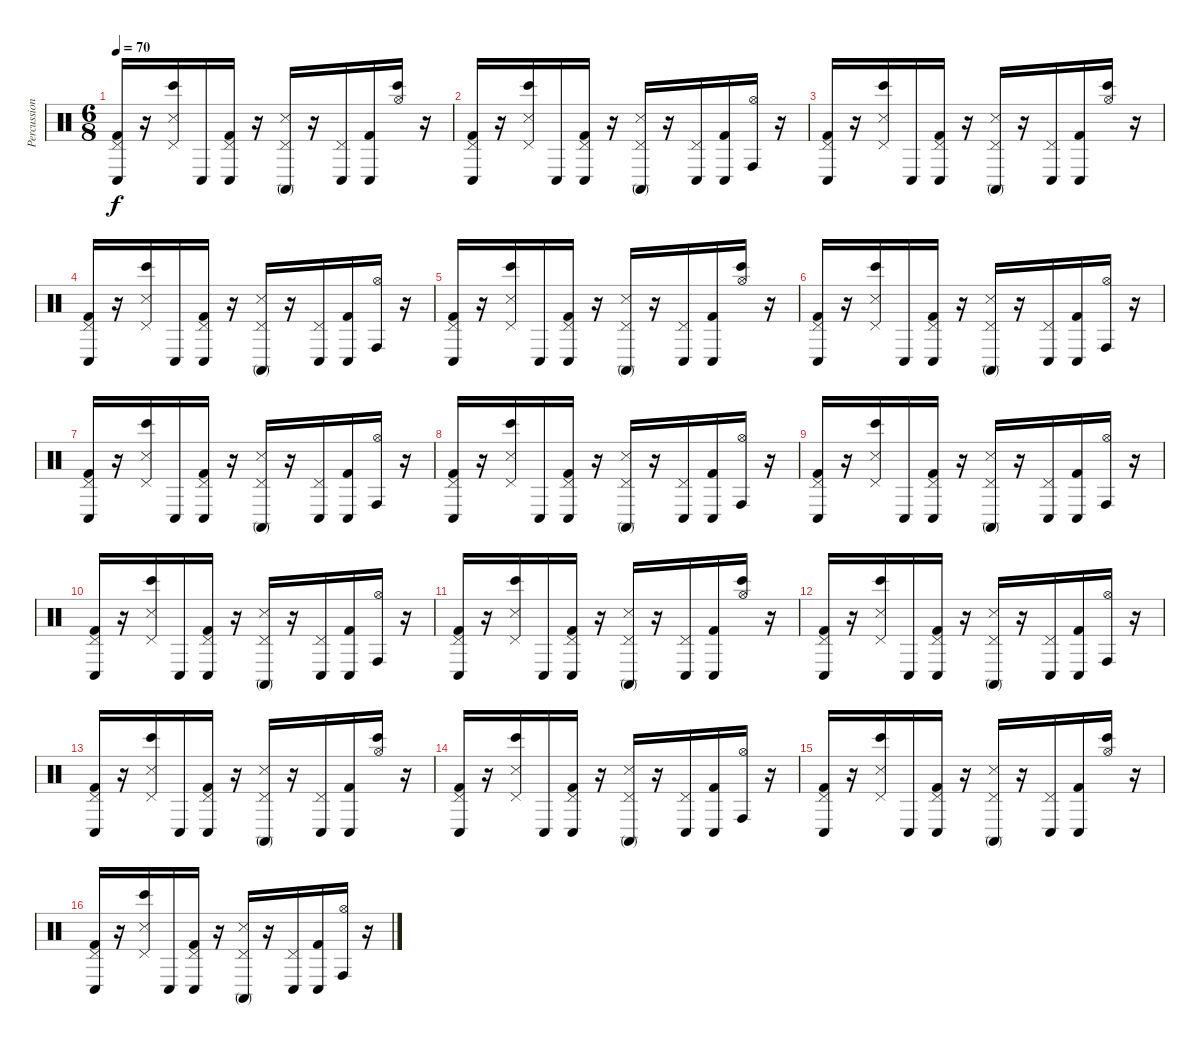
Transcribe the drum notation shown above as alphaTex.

\track ("Percussion" "Percussion") {instrument percussion}
\staff {score}
\articulation defaults
\ts (6 8)
\tempo 70
\clef neutral
\ks c
("Pedal Hi-Hat (hit)" "Conga low (hit)" "Kick (hit) 2").16{dy f} r.16 ("Pedal Hi-Hat (hit)" "Bongo High (hit)" "Snare (side stick) 3").16 "Conga low (hit)".16 ("Pedal Hi-Hat (hit)" "Conga low (hit)" "Kick (hit) 2").16 r.16 ("Pedal Hi-Hat (hit)" "Conga high (mute)" "Snare (side stick) 3").16 r.16 ("Pedal Hi-Hat (hit)" "Conga low (hit)").16 ("Conga low (hit)" "Kick (hit) 2").16 ("Hi-Hat (open)" "Bongo High (hit)").16 r.16 |
("Pedal Hi-Hat (hit)" "Conga low (hit)" "Kick (hit) 2").16 r.16 ("Pedal Hi-Hat (hit)" "Bongo High (hit)" "Snare (side stick) 3").16 "Conga low (hit)".16 ("Pedal Hi-Hat (hit)" "Conga low (hit)" "Kick (hit) 2").16 r.16 ("Pedal Hi-Hat (hit)" "Conga high (mute)" "Snare (side stick) 3").16 r.16 ("Pedal Hi-Hat (hit)" "Conga low (hit)").16 ("Conga low (hit)" "Kick (hit) 2").16 ("Hi-Hat (open)" "Conga high (hit)").16 r.16 |
("Pedal Hi-Hat (hit)" "Conga low (hit)" "Kick (hit) 2").16 r.16 ("Pedal Hi-Hat (hit)" "Bongo High (hit)" "Snare (side stick) 3").16 "Conga low (hit)".16 ("Pedal Hi-Hat (hit)" "Conga low (hit)" "Kick (hit) 2").16 r.16 ("Pedal Hi-Hat (hit)" "Conga high (mute)" "Snare (side stick) 3").16 r.16 ("Pedal Hi-Hat (hit)" "Conga low (hit)").16 ("Conga low (hit)" "Kick (hit) 2").16 ("Hi-Hat (open)" "Bongo High (hit)").16 r.16 |
("Pedal Hi-Hat (hit)" "Conga low (hit)" "Kick (hit) 2").16 r.16 ("Pedal Hi-Hat (hit)" "Bongo High (hit)" "Snare (side stick) 3").16 "Conga low (hit)".16 ("Pedal Hi-Hat (hit)" "Conga low (hit)" "Kick (hit) 2").16 r.16 ("Pedal Hi-Hat (hit)" "Conga high (mute)" "Snare (side stick) 3").16 r.16 ("Pedal Hi-Hat (hit)" "Conga low (hit)").16 ("Conga low (hit)" "Kick (hit) 2").16 ("Hi-Hat (open)" "Conga high (hit)").16 r.16 |
("Pedal Hi-Hat (hit)" "Conga low (hit)" "Kick (hit) 2").16 r.16 ("Pedal Hi-Hat (hit)" "Bongo High (hit)" "Snare (side stick) 3").16 "Conga low (hit)".16 ("Pedal Hi-Hat (hit)" "Conga low (hit)" "Kick (hit) 2").16 r.16 ("Pedal Hi-Hat (hit)" "Conga high (mute)" "Snare (side stick) 3").16 r.16 ("Pedal Hi-Hat (hit)" "Conga low (hit)").16 ("Conga low (hit)" "Kick (hit) 2").16 ("Hi-Hat (open)" "Bongo High (hit)").16 r.16 |
("Pedal Hi-Hat (hit)" "Conga low (hit)" "Kick (hit) 2").16 r.16 ("Pedal Hi-Hat (hit)" "Bongo High (hit)" "Snare (side stick) 3").16 "Conga low (hit)".16 ("Pedal Hi-Hat (hit)" "Conga low (hit)" "Kick (hit) 2").16 r.16 ("Pedal Hi-Hat (hit)" "Conga high (mute)" "Snare (side stick) 3").16 r.16 ("Pedal Hi-Hat (hit)" "Conga low (hit)").16 ("Conga low (hit)" "Kick (hit) 2").16 ("Hi-Hat (open)" "Conga high (hit)").16 r.16 |
("Pedal Hi-Hat (hit)" "Conga low (hit)" "Kick (hit) 2").16 r.16 ("Pedal Hi-Hat (hit)" "Bongo High (hit)" "Snare (side stick) 3").16 "Conga low (hit)".16 ("Pedal Hi-Hat (hit)" "Conga low (hit)" "Kick (hit) 2").16 r.16 ("Pedal Hi-Hat (hit)" "Conga high (mute)" "Snare (side stick) 3").16 r.16 ("Pedal Hi-Hat (hit)" "Conga low (hit)").16 ("Conga low (hit)" "Kick (hit) 2").16 ("Hi-Hat (open)" "Conga high (hit)").16 r.16 |
("Pedal Hi-Hat (hit)" "Conga low (hit)" "Kick (hit) 2").16 r.16 ("Pedal Hi-Hat (hit)" "Bongo High (hit)" "Snare (side stick) 3").16 "Conga low (hit)".16 ("Pedal Hi-Hat (hit)" "Conga low (hit)" "Kick (hit) 2").16 r.16 ("Pedal Hi-Hat (hit)" "Conga high (mute)" "Snare (side stick) 3").16 r.16 ("Pedal Hi-Hat (hit)" "Conga low (hit)").16 ("Conga low (hit)" "Kick (hit) 2").16 ("Hi-Hat (open)" "Conga high (hit)").16 r.16 |
("Pedal Hi-Hat (hit)" "Conga low (hit)" "Kick (hit) 2").16 r.16 ("Pedal Hi-Hat (hit)" "Bongo High (hit)" "Snare (side stick) 3").16 "Conga low (hit)".16 ("Pedal Hi-Hat (hit)" "Conga low (hit)" "Kick (hit) 2").16 r.16 ("Pedal Hi-Hat (hit)" "Conga high (mute)" "Snare (side stick) 3").16 r.16 ("Pedal Hi-Hat (hit)" "Conga low (hit)").16 ("Conga low (hit)" "Kick (hit) 2").16 ("Hi-Hat (open)" "Conga high (hit)").16 r.16 |
("Pedal Hi-Hat (hit)" "Conga low (hit)" "Kick (hit) 2").16 r.16 ("Pedal Hi-Hat (hit)" "Bongo High (hit)" "Snare (side stick) 3").16 "Conga low (hit)".16 ("Pedal Hi-Hat (hit)" "Conga low (hit)" "Kick (hit) 2").16 r.16 ("Pedal Hi-Hat (hit)" "Conga high (mute)" "Snare (side stick) 3").16 r.16 ("Pedal Hi-Hat (hit)" "Conga low (hit)").16 ("Conga low (hit)" "Kick (hit) 2").16 ("Hi-Hat (open)" "Conga high (hit)").16 r.16 |
("Pedal Hi-Hat (hit)" "Conga low (hit)" "Kick (hit) 2").16 r.16 ("Pedal Hi-Hat (hit)" "Bongo High (hit)" "Snare (side stick) 3").16 "Conga low (hit)".16 ("Pedal Hi-Hat (hit)" "Conga low (hit)" "Kick (hit) 2").16 r.16 ("Pedal Hi-Hat (hit)" "Conga high (mute)" "Snare (side stick) 3").16 r.16 ("Pedal Hi-Hat (hit)" "Conga low (hit)").16 ("Conga low (hit)" "Kick (hit) 2").16 ("Hi-Hat (open)" "Bongo High (hit)").16 r.16 |
("Pedal Hi-Hat (hit)" "Conga low (hit)" "Kick (hit) 2").16 r.16 ("Pedal Hi-Hat (hit)" "Bongo High (hit)" "Snare (side stick) 3").16 "Conga low (hit)".16 ("Pedal Hi-Hat (hit)" "Conga low (hit)" "Kick (hit) 2").16 r.16 ("Pedal Hi-Hat (hit)" "Conga high (mute)" "Snare (side stick) 3").16 r.16 ("Pedal Hi-Hat (hit)" "Conga low (hit)").16 ("Conga low (hit)" "Kick (hit) 2").16 ("Hi-Hat (open)" "Conga high (hit)").16 r.16 |
("Pedal Hi-Hat (hit)" "Conga low (hit)" "Kick (hit) 2").16 r.16 ("Pedal Hi-Hat (hit)" "Bongo High (hit)" "Snare (side stick) 3").16 "Conga low (hit)".16 ("Pedal Hi-Hat (hit)" "Conga low (hit)" "Kick (hit) 2").16 r.16 ("Pedal Hi-Hat (hit)" "Conga high (mute)" "Snare (side stick) 3").16 r.16 ("Pedal Hi-Hat (hit)" "Conga low (hit)").16 ("Conga low (hit)" "Kick (hit) 2").16 ("Hi-Hat (open)" "Bongo High (hit)").16 r.16 |
("Pedal Hi-Hat (hit)" "Conga low (hit)" "Kick (hit) 2").16 r.16 ("Pedal Hi-Hat (hit)" "Bongo High (hit)" "Snare (side stick) 3").16 "Conga low (hit)".16 ("Pedal Hi-Hat (hit)" "Conga low (hit)" "Kick (hit) 2").16 r.16 ("Pedal Hi-Hat (hit)" "Conga high (mute)" "Snare (side stick) 3").16 r.16 ("Pedal Hi-Hat (hit)" "Conga low (hit)").16 ("Conga low (hit)" "Kick (hit) 2").16 ("Hi-Hat (open)" "Conga high (hit)").16 r.16 |
("Pedal Hi-Hat (hit)" "Conga low (hit)" "Kick (hit) 2").16 r.16 ("Pedal Hi-Hat (hit)" "Bongo High (hit)" "Snare (side stick) 3").16 "Conga low (hit)".16 ("Pedal Hi-Hat (hit)" "Conga low (hit)" "Kick (hit) 2").16 r.16 ("Pedal Hi-Hat (hit)" "Conga high (mute)" "Snare (side stick) 3").16 r.16 ("Pedal Hi-Hat (hit)" "Conga low (hit)").16 ("Conga low (hit)" "Kick (hit) 2").16 ("Hi-Hat (open)" "Bongo High (hit)").16 r.16 |
("Pedal Hi-Hat (hit)" "Conga low (hit)" "Kick (hit) 2").16 r.16 ("Pedal Hi-Hat (hit)" "Bongo High (hit)" "Snare (side stick) 3").16 "Conga low (hit)".16 ("Pedal Hi-Hat (hit)" "Conga low (hit)" "Kick (hit) 2").16 r.16 ("Pedal Hi-Hat (hit)" "Conga high (mute)" "Snare (side stick) 3").16 r.16 ("Pedal Hi-Hat (hit)" "Conga low (hit)").16 ("Conga low (hit)" "Kick (hit) 2").16 ("Hi-Hat (open)" "Conga high (hit)").16 r.16
